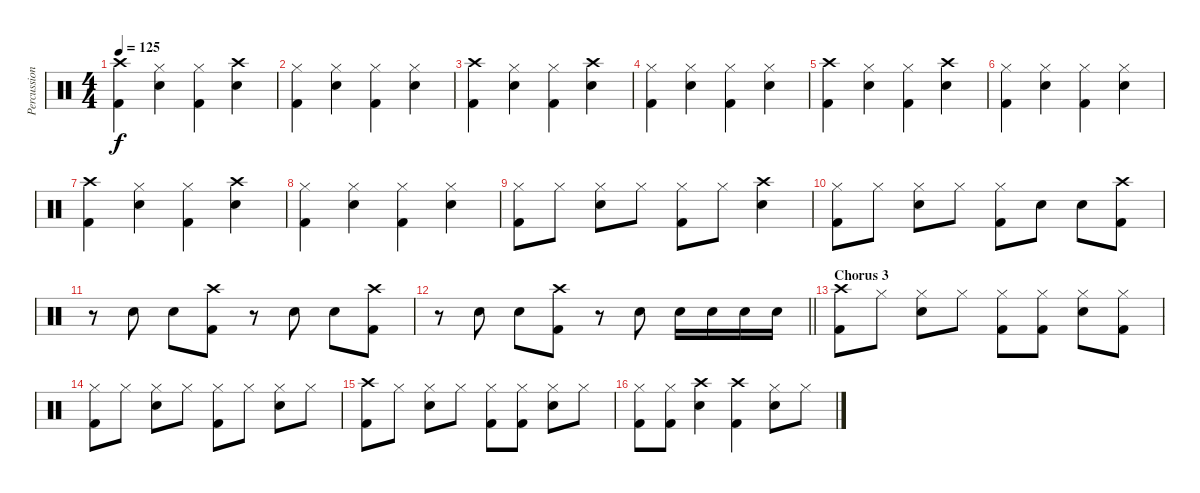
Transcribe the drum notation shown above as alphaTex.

\track ("Percussions" "Percussion") {instrument percussion}
\staff {score}
\articulation defaults
\ts (4 4)
\tempo 125
\clef neutral
\ks c
("Crash high (hit)" "Kick (hit) 2").4{dy f} ("Hi-Hat (closed)" "Snare (hit) 2").4 ("Hi-Hat (closed)" "Kick (hit) 2").4 ("Crash high (hit)" "Snare (hit) 2").4 |
("Hi-Hat (closed)" "Kick (hit) 2").4 ("Hi-Hat (closed)" "Snare (hit) 2").4 ("Hi-Hat (closed)" "Kick (hit) 2").4 ("Hi-Hat (closed)" "Snare (hit) 2").4 |
("Crash high (hit)" "Kick (hit) 2").4 ("Hi-Hat (closed)" "Snare (hit) 2").4 ("Hi-Hat (closed)" "Kick (hit) 2").4 ("Crash high (hit)" "Snare (hit) 2").4 |
("Hi-Hat (closed)" "Kick (hit) 2").4 ("Hi-Hat (closed)" "Snare (hit) 2").4 ("Hi-Hat (closed)" "Kick (hit) 2").4 ("Hi-Hat (closed)" "Snare (hit) 2").4 |
("Crash high (hit)" "Kick (hit) 2").4 ("Hi-Hat (closed)" "Snare (hit) 2").4 ("Hi-Hat (closed)" "Kick (hit) 2").4 ("Crash high (hit)" "Snare (hit) 2").4 |
("Hi-Hat (closed)" "Kick (hit) 2").4 ("Hi-Hat (closed)" "Snare (hit) 2").4 ("Hi-Hat (closed)" "Kick (hit) 2").4 ("Hi-Hat (closed)" "Snare (hit) 2").4 |
("Crash high (hit)" "Kick (hit) 2").4 ("Hi-Hat (closed)" "Snare (hit) 2").4 ("Hi-Hat (closed)" "Kick (hit) 2").4 ("Crash high (hit)" "Snare (hit) 2").4 |
("Hi-Hat (closed)" "Kick (hit) 2").4 ("Hi-Hat (closed)" "Snare (hit) 2").4 ("Hi-Hat (closed)" "Kick (hit) 2").4 ("Hi-Hat (closed)" "Snare (hit) 2").4 |
("Hi-Hat (closed)" "Kick (hit) 2").8 "Hi-Hat (closed)".8 ("Hi-Hat (closed)" "Snare (hit) 2").8 "Hi-Hat (closed)".8 ("Hi-Hat (closed)" "Kick (hit) 2").8 "Hi-Hat (closed)".8 ("Crash high (hit)" "Snare (hit) 2").4 |
("Hi-Hat (closed)" "Kick (hit) 2").8 "Hi-Hat (closed)".8 ("Hi-Hat (closed)" "Snare (hit) 2").8 "Hi-Hat (closed)".8 ("Hi-Hat (closed)" "Kick (hit) 2").8 "Snare (hit) 2".8 "Snare (hit) 2".8 ("Crash high (hit)" "Kick (hit) 2").8 |
r.8 "Snare (hit) 2".8 "Snare (hit) 2".8 ("Crash high (hit)" "Kick (hit) 2").8 r.8 "Snare (hit) 2".8 "Snare (hit) 2".8 ("Crash high (hit)" "Kick (hit) 2").8 |
\barLineRight lightlight
r.8 "Snare (hit) 2".8 "Snare (hit) 2".8 ("Crash high (hit)" "Kick (hit) 2").8 r.8 "Snare (hit) 2".8 "Snare (hit) 2".16 "Snare (hit) 2".16 "Snare (hit) 2".16 "Snare (hit) 2".16 |
\section ("" "Chorus 3")
("Crash high (hit)" "Kick (hit) 2").8 "Hi-Hat (closed)".8 ("Hi-Hat (closed)" "Snare (hit) 2").8 "Hi-Hat (closed)".8 ("Hi-Hat (closed)" "Kick (hit) 2").8 ("Hi-Hat (closed)" "Kick (hit) 2").8 ("Hi-Hat (closed)" "Snare (hit) 2").8 ("Hi-Hat (closed)" "Kick (hit) 2").8 |
("Hi-Hat (closed)" "Kick (hit) 2").8 "Hi-Hat (closed)".8 ("Hi-Hat (closed)" "Snare (hit) 2").8 "Hi-Hat (closed)".8 ("Hi-Hat (closed)" "Kick (hit) 2").8 "Hi-Hat (closed)".8 ("Hi-Hat (closed)" "Snare (hit) 2").8 "Hi-Hat (closed)".8 |
("Crash high (hit)" "Kick (hit) 2").8 "Hi-Hat (closed)".8 ("Hi-Hat (closed)" "Snare (hit) 2").8 "Hi-Hat (closed)".8 ("Hi-Hat (closed)" "Kick (hit) 2").8 ("Hi-Hat (closed)" "Kick (hit) 2").8 ("Hi-Hat (closed)" "Snare (hit) 2").8 "Hi-Hat (closed)".8 |
("Hi-Hat (closed)" "Kick (hit) 2").8 ("Hi-Hat (closed)" "Kick (hit) 2").8 ("Crash high (hit)" "Snare (hit) 2").4 ("Crash high (hit)" "Kick (hit) 2").4 ("Hi-Hat (closed)" "Snare (hit) 2").8 "Hi-Hat (closed)".8
